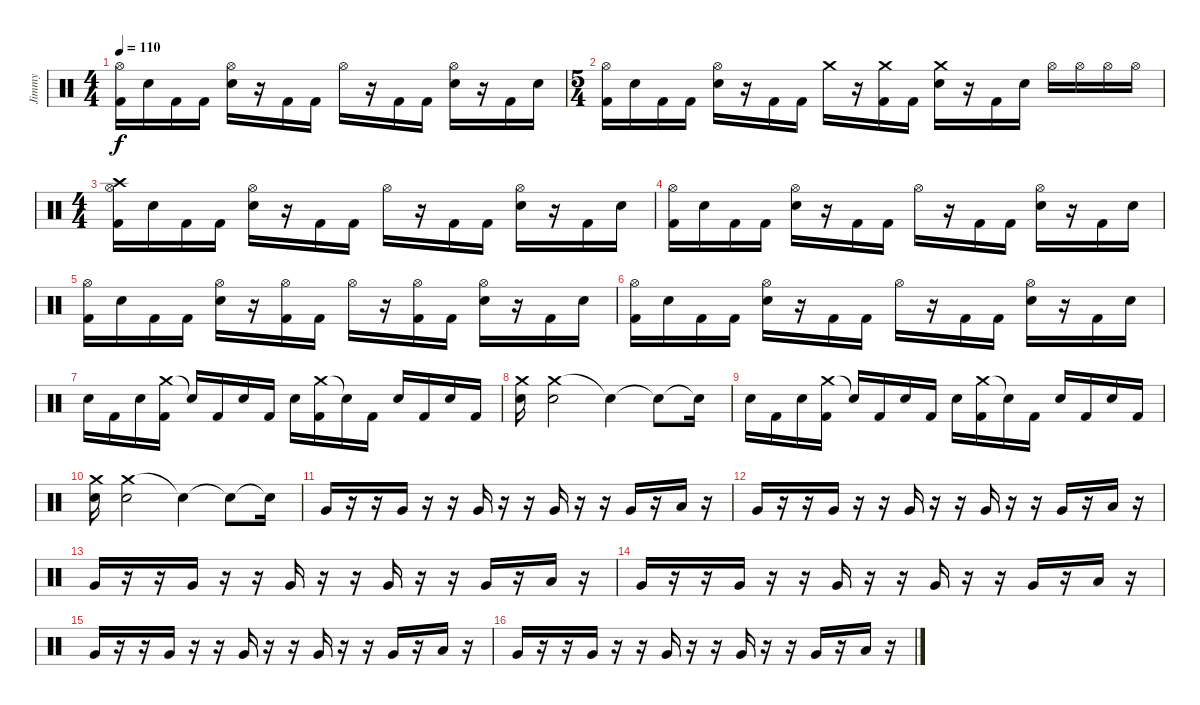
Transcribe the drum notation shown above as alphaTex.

\track ("Jimmy" "Jimmy") {instrument percussion}
\staff {score}
\articulation defaults
\ts (4 4)
\tempo 110
\clef neutral
\ks c
("Hi-Hat (open)" "Kick (hit) 2").16{dy f} "Electric Snare (hit)".16 "Kick (hit) 2".16 "Kick (hit) 2".16 ("Hi-Hat (open)" "Electric Snare (hit)").16 r.16 "Kick (hit) 2".16 "Kick (hit) 2".16 "Hi-Hat (open)".16 r.16 "Kick (hit) 2".16 "Kick (hit) 2".16 ("Hi-Hat (open)" "Electric Snare (hit)").16 r.16 "Kick (hit) 2".16 "Electric Snare (hit)".16 |
\ts (5 4)
("Hi-Hat (open)" "Kick (hit) 2").16 "Electric Snare (hit)".16 "Kick (hit) 2".16 "Kick (hit) 2".16 ("Hi-Hat (open)" "Electric Snare (hit)").16 r.16 "Kick (hit) 2".16 "Kick (hit) 2".16 "Crash medium (hit)".16 r.16 ("Crash medium (hit)" "Kick (hit) 2").16 "Kick (hit) 2".16 ("Crash medium (hit)" "Electric Snare (hit)").16 r.16 "Kick (hit) 2".16 "Electric Snare (hit)".16 "Hi-Hat (open)".16 "Hi-Hat (open)".16 "Hi-Hat (open)".16 "Hi-Hat (open)".16 |
\ts (4 4)
("Crash high (hit)" "Hi-Hat (open)" "Kick (hit) 2").16 "Electric Snare (hit)".16 "Kick (hit) 2".16 "Kick (hit) 2".16 ("Hi-Hat (open)" "Electric Snare (hit)").16 r.16 "Kick (hit) 2".16 "Kick (hit) 2".16 "Hi-Hat (open)".16 r.16 "Kick (hit) 2".16 "Kick (hit) 2".16 ("Hi-Hat (open)" "Electric Snare (hit)").16 r.16 "Kick (hit) 2".16 "Electric Snare (hit)".16 |
("Hi-Hat (open)" "Kick (hit) 2").16 "Electric Snare (hit)".16 "Kick (hit) 2".16 "Kick (hit) 2".16 ("Hi-Hat (open)" "Electric Snare (hit)").16 r.16 "Kick (hit) 2".16 "Kick (hit) 2".16 "Hi-Hat (open)".16 r.16 "Kick (hit) 2".16 "Kick (hit) 2".16 ("Hi-Hat (open)" "Electric Snare (hit)").16 r.16 "Kick (hit) 2".16 "Electric Snare (hit)".16 |
("Hi-Hat (open)" "Kick (hit) 2").16 "Electric Snare (hit)".16 "Kick (hit) 2".16 "Kick (hit) 2".16 ("Hi-Hat (open)" "Electric Snare (hit)").16 r.16 ("Hi-Hat (open)" "Kick (hit) 2").16 "Kick (hit) 2".16 "Hi-Hat (open)".16 r.16 ("Hi-Hat (open)" "Kick (hit) 2").16 "Kick (hit) 2".16 ("Hi-Hat (open)" "Electric Snare (hit)").16 r.16 "Kick (hit) 2".16 "Electric Snare (hit)".16 |
("Hi-Hat (open)" "Kick (hit) 2").16 "Electric Snare (hit)".16 "Kick (hit) 2".16 "Kick (hit) 2".16 ("Hi-Hat (open)" "Electric Snare (hit)").16 r.16 "Kick (hit) 2".16 "Kick (hit) 2".16 "Hi-Hat (open)".16 r.16 "Kick (hit) 2".16 "Kick (hit) 2".16 ("Hi-Hat (open)" "Electric Snare (hit)").16 r.16 "Kick (hit) 2".16 "Electric Snare (hit)".16 |
"Electric Snare (hit)".16 "Kick (hit) 2".16 "Electric Snare (hit)".16 ("Crash medium (hit)" "Kick (hit) 2").16 "Snare (hit)"{t}.16 "Kick (hit) 2".16 "Electric Snare (hit)".16 "Kick (hit) 2".16 "Electric Snare (hit)".16 ("Crash medium (hit)" "Kick (hit) 2").16 "Snare (hit)"{t}.16 "Kick (hit) 2".16 "Electric Snare (hit)".16 "Kick (hit) 2".16 "Electric Snare (hit)".16 "Kick (hit) 2".16 |
("Crash medium (hit)" "Electric Snare (hit)").16 ("Crash medium (hit)" "Electric Snare (hit)").2 "Snare (hit)"{t}.4 "Snare (hit)"{t}.8 "Snare (hit)"{t}.16 |
"Electric Snare (hit)".16 "Kick (hit) 2".16 "Electric Snare (hit)".16 ("Crash medium (hit)" "Kick (hit) 2").16 "Snare (hit)"{t}.16 "Kick (hit) 2".16 "Electric Snare (hit)".16 "Kick (hit) 2".16 "Electric Snare (hit)".16 ("Crash medium (hit)" "Kick (hit) 2").16 "Snare (hit)"{t}.16 "Kick (hit) 2".16 "Electric Snare (hit)".16 "Kick (hit) 2".16 "Electric Snare (hit)".16 "Kick (hit) 2".16 |
("Crash medium (hit)" "Electric Snare (hit)").16 ("Crash medium (hit)" "Electric Snare (hit)").2 "Snare (hit)"{t}.4 "Snare (hit)"{t}.8 "Snare (hit)"{t}.16 |
"Very Low Tom (hit)".16 r.16 r.16 "Very Low Tom (hit)".16 r.16 r.16 "Very Low Tom (hit)".16 r.16 r.16 "Very Low Tom (hit)".16 r.16 r.16 "Very Low Tom (hit)".16 r.16 "Low Tom (hit)".16 r.16 |
"Very Low Tom (hit)".16 r.16 r.16 "Very Low Tom (hit)".16 r.16 r.16 "Very Low Tom (hit)".16 r.16 r.16 "Very Low Tom (hit)".16 r.16 r.16 "Very Low Tom (hit)".16 r.16 "Low Tom (hit)".16 r.16 |
"Very Low Tom (hit)".16 r.16 r.16 "Very Low Tom (hit)".16 r.16 r.16 "Very Low Tom (hit)".16 r.16 r.16 "Very Low Tom (hit)".16 r.16 r.16 "Very Low Tom (hit)".16 r.16 "Low Tom (hit)".16 r.16 |
"Very Low Tom (hit)".16 r.16 r.16 "Very Low Tom (hit)".16 r.16 r.16 "Very Low Tom (hit)".16 r.16 r.16 "Very Low Tom (hit)".16 r.16 r.16 "Very Low Tom (hit)".16 r.16 "Low Tom (hit)".16 r.16 |
"Very Low Tom (hit)".16 r.16 r.16 "Very Low Tom (hit)".16 r.16 r.16 "Very Low Tom (hit)".16 r.16 r.16 "Very Low Tom (hit)".16 r.16 r.16 "Very Low Tom (hit)".16 r.16 "Low Tom (hit)".16 r.16 |
"Very Low Tom (hit)".16 r.16 r.16 "Very Low Tom (hit)".16 r.16 r.16 "Very Low Tom (hit)".16 r.16 r.16 "Very Low Tom (hit)".16 r.16 r.16 "Very Low Tom (hit)".16 r.16 "Low Tom (hit)".16 r.16
